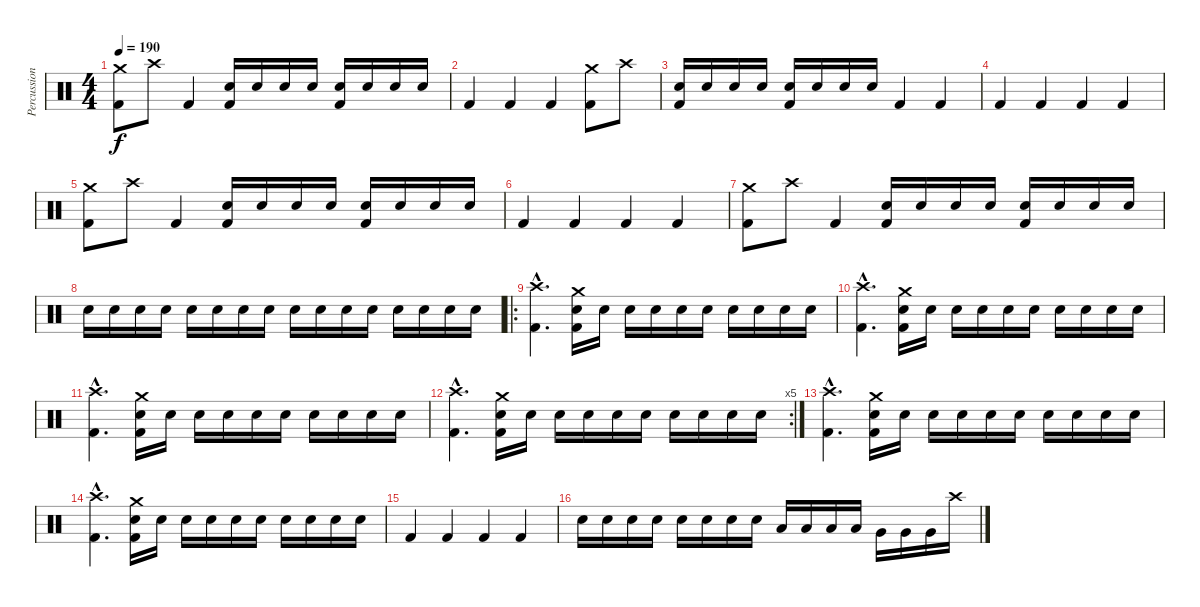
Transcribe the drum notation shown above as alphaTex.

\track ("Percussion" "Percussion") {instrument percussion}
\staff {score}
\articulation defaults
\ts (4 4)
\tempo 190
\clef neutral
\ks c
("Crash medium (hit)" "Kick (hit) 2").8{dy f} "Crash high (hit)".8 "Kick (hit) 2".4 ("Electric Snare (hit)" "Kick (hit) 2").16 "Electric Snare (hit)".16 "Electric Snare (hit)".16 "Electric Snare (hit)".16 ("Electric Snare (hit)" "Kick (hit) 2").16 "Electric Snare (hit)".16 "Electric Snare (hit)".16 "Electric Snare (hit)".16 |
"Kick (hit) 2".4 "Kick (hit) 2".4 "Kick (hit) 2".4 ("Crash medium (hit)" "Kick (hit) 2").8 "Crash high (hit)".8 |
("Electric Snare (hit)" "Kick (hit) 2").16 "Electric Snare (hit)".16 "Electric Snare (hit)".16 "Electric Snare (hit)".16 ("Electric Snare (hit)" "Kick (hit) 2").16 "Electric Snare (hit)".16 "Electric Snare (hit)".16 "Electric Snare (hit)".16 "Kick (hit) 2".4 "Kick (hit) 2".4 |
"Kick (hit) 2".4 "Kick (hit) 2".4 "Kick (hit) 2".4 "Kick (hit) 2".4 |
("Crash medium (hit)" "Kick (hit) 2").8 "Crash high (hit)".8 "Kick (hit) 2".4 ("Electric Snare (hit)" "Kick (hit) 2").16 "Electric Snare (hit)".16 "Electric Snare (hit)".16 "Electric Snare (hit)".16 ("Electric Snare (hit)" "Kick (hit) 2").16 "Electric Snare (hit)".16 "Electric Snare (hit)".16 "Electric Snare (hit)".16 |
"Kick (hit) 2".4 "Kick (hit) 2".4 "Kick (hit) 2".4 "Kick (hit) 2".4 |
("Crash medium (hit)" "Kick (hit) 2").8 "Crash high (hit)".8 "Kick (hit) 2".4 ("Electric Snare (hit)" "Kick (hit) 2").16 "Electric Snare (hit)".16 "Electric Snare (hit)".16 "Electric Snare (hit)".16 ("Electric Snare (hit)" "Kick (hit) 2").16 "Electric Snare (hit)".16 "Electric Snare (hit)".16 "Electric Snare (hit)".16 |
"Electric Snare (hit)".16 "Electric Snare (hit)".16 "Electric Snare (hit)".16 "Electric Snare (hit)".16 "Electric Snare (hit)".16 "Electric Snare (hit)".16 "Electric Snare (hit)".16 "Electric Snare (hit)".16 "Electric Snare (hit)".16 "Electric Snare (hit)".16 "Electric Snare (hit)".16 "Electric Snare (hit)".16 "Electric Snare (hit)".16 "Electric Snare (hit)".16 "Electric Snare (hit)".16 "Electric Snare (hit)".16 |
\ro
("Crash high (hit)"{hac} "Kick (hit) 2"{hac}).4{d} ("Crash medium (hit)" "Electric Snare (hit)" "Kick (hit) 2").16 "Electric Snare (hit)".16 "Electric Snare (hit)".16 "Electric Snare (hit)".16 "Electric Snare (hit)".16 "Electric Snare (hit)".16 "Electric Snare (hit)".16 "Electric Snare (hit)".16 "Electric Snare (hit)".16 "Electric Snare (hit)".16 |
("Crash high (hit)"{hac} "Kick (hit) 2"{hac}).4{d} ("Crash medium (hit)" "Electric Snare (hit)" "Kick (hit) 2").16 "Electric Snare (hit)".16 "Electric Snare (hit)".16 "Electric Snare (hit)".16 "Electric Snare (hit)".16 "Electric Snare (hit)".16 "Electric Snare (hit)".16 "Electric Snare (hit)".16 "Electric Snare (hit)".16 "Electric Snare (hit)".16 |
("Crash high (hit)"{hac} "Kick (hit) 2"{hac}).4{d} ("Crash medium (hit)" "Electric Snare (hit)" "Kick (hit) 2").16 "Electric Snare (hit)".16 "Electric Snare (hit)".16 "Electric Snare (hit)".16 "Electric Snare (hit)".16 "Electric Snare (hit)".16 "Electric Snare (hit)".16 "Electric Snare (hit)".16 "Electric Snare (hit)".16 "Electric Snare (hit)".16 |
\rc 5
("Crash high (hit)"{hac} "Kick (hit) 2"{hac}).4{d} ("Crash medium (hit)" "Electric Snare (hit)" "Kick (hit) 2").16 "Electric Snare (hit)".16 "Electric Snare (hit)".16 "Electric Snare (hit)".16 "Electric Snare (hit)".16 "Electric Snare (hit)".16 "Electric Snare (hit)".16 "Electric Snare (hit)".16 "Electric Snare (hit)".16 "Electric Snare (hit)".16 |
("Crash high (hit)"{hac} "Kick (hit) 2"{hac}).4{d} ("Crash medium (hit)" "Electric Snare (hit)" "Kick (hit) 2").16 "Electric Snare (hit)".16 "Electric Snare (hit)".16 "Electric Snare (hit)".16 "Electric Snare (hit)".16 "Electric Snare (hit)".16 "Electric Snare (hit)".16 "Electric Snare (hit)".16 "Electric Snare (hit)".16 "Electric Snare (hit)".16 |
("Crash high (hit)"{hac} "Kick (hit) 2"{hac}).4{d} ("Crash medium (hit)" "Electric Snare (hit)" "Kick (hit) 2").16 "Electric Snare (hit)".16 "Electric Snare (hit)".16 "Electric Snare (hit)".16 "Electric Snare (hit)".16 "Electric Snare (hit)".16 "Electric Snare (hit)".16 "Electric Snare (hit)".16 "Electric Snare (hit)".16 "Electric Snare (hit)".16 |
"Kick (hit) 2".4 "Kick (hit) 2".4 "Kick (hit) 2".4 "Kick (hit) 2".4 |
"Electric Snare (hit)".16 "Electric Snare (hit)".16 "Electric Snare (hit)".16 "Electric Snare (hit)".16 "Electric Snare (hit)".16 "Electric Snare (hit)".16 "Electric Snare (hit)".16 "Electric Snare (hit)".16 "Low Tom (hit)".16 "Low Tom (hit)".16 "Low Tom (hit)".16 "Low Tom (hit)".16 "Very Low Tom (hit)".16 "Very Low Tom (hit)".16 "Very Low Tom (hit)".16 "Crash high (hit)".16
